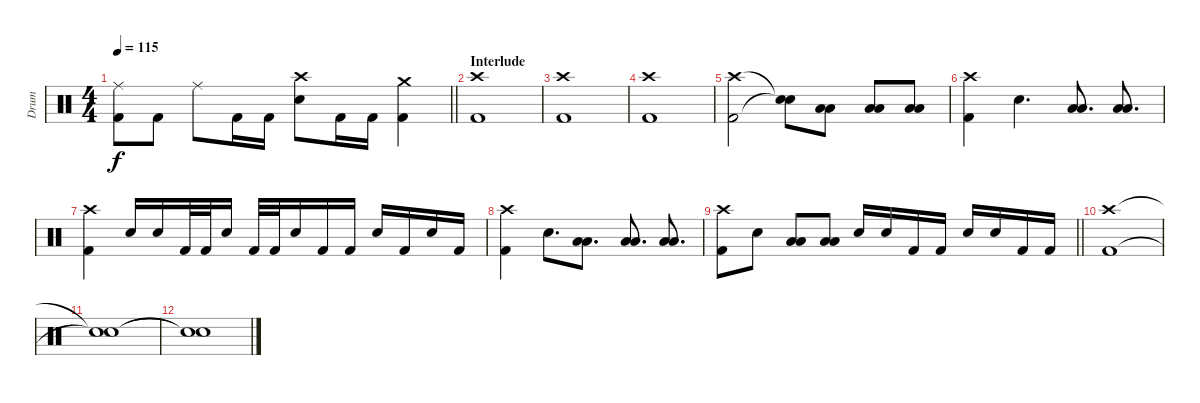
\track ("Drum" "Drum") {instrument percussion}
\staff {score}
\articulation defaults
\ts (4 4)
\tempo 115
\clef neutral
\barLineRight lightlight
\ks c
("Kick (hit) 2" "Ride (middle)").8{dy f} "Kick (hit) 2".8 "Ride (middle)".8 "Kick (hit) 2".16 "Kick (hit) 2".16 ("Crash high (hit)" "Electric Snare (hit)").8 "Kick (hit) 2".16 "Kick (hit) 2".16 ("Kick (hit) 2" "Crash medium (hit)").4 |
\section ("" "Interlude")
("Kick (hit) 2" "Crash high (hit)").1 |
("Kick (hit) 2" "Crash high (hit)").1 |
("Kick (hit) 2" "Crash high (hit)").1 |
("Kick (hit) 2" "Crash high (hit)").2 ("Snare (hit)"{t} "Snare (hit)"{t}).8 ("Low Floor Tom (hit)" "Low Tom (hit)").8 ("Low Floor Tom (hit)" "Low Tom (hit)").8 ("Low Floor Tom (hit)" "Low Tom (hit)").8 |
("Kick (hit) 2" "Crash high (hit)").4 "Electric Snare (hit)".4{d} ("Low Floor Tom (hit)" "Low Tom (hit)").8{d} ("Low Floor Tom (hit)" "Low Tom (hit)").8{d} |
("Kick (hit) 2" "Crash high (hit)").4 "Electric Snare (hit)".16 "Electric Snare (hit)".16 "Kick (hit) 2".32 "Kick (hit) 2".32 "Electric Snare (hit)".16 "Kick (hit) 2".32 "Kick (hit) 2".32 "Electric Snare (hit)".16 "Kick (hit) 2".16 "Kick (hit) 2".16 "Electric Snare (hit)".16 "Kick (hit) 2".16 "Electric Snare (hit)".16 "Kick (hit) 2".16 |
("Kick (hit) 2" "Crash high (hit)").4 "Electric Snare (hit)".8{d} ("Low Floor Tom (hit)" "Low Tom (hit)").8{d} ("Low Floor Tom (hit)" "Low Tom (hit)").8{d} ("Low Floor Tom (hit)" "Low Tom (hit)").8{d} |
\barLineRight lightlight
("Kick (hit) 2" "Crash high (hit)").8 "Electric Snare (hit)".8 ("Low Floor Tom (hit)" "Low Tom (hit)").8 ("Low Floor Tom (hit)" "Low Tom (hit)").8 "Electric Snare (hit)".16 "Electric Snare (hit)".16 "Kick (hit) 2".16 "Kick (hit) 2".16 "Electric Snare (hit)".16 "Electric Snare (hit)".16 "Kick (hit) 2".16 "Kick (hit) 2".16 |
("Kick (hit) 2" "Crash high (hit)").1 |
("Snare (hit)"{t} "Snare (hit)"{t}).1 |
("Snare (hit)"{t} "Snare (hit)"{t}).1
